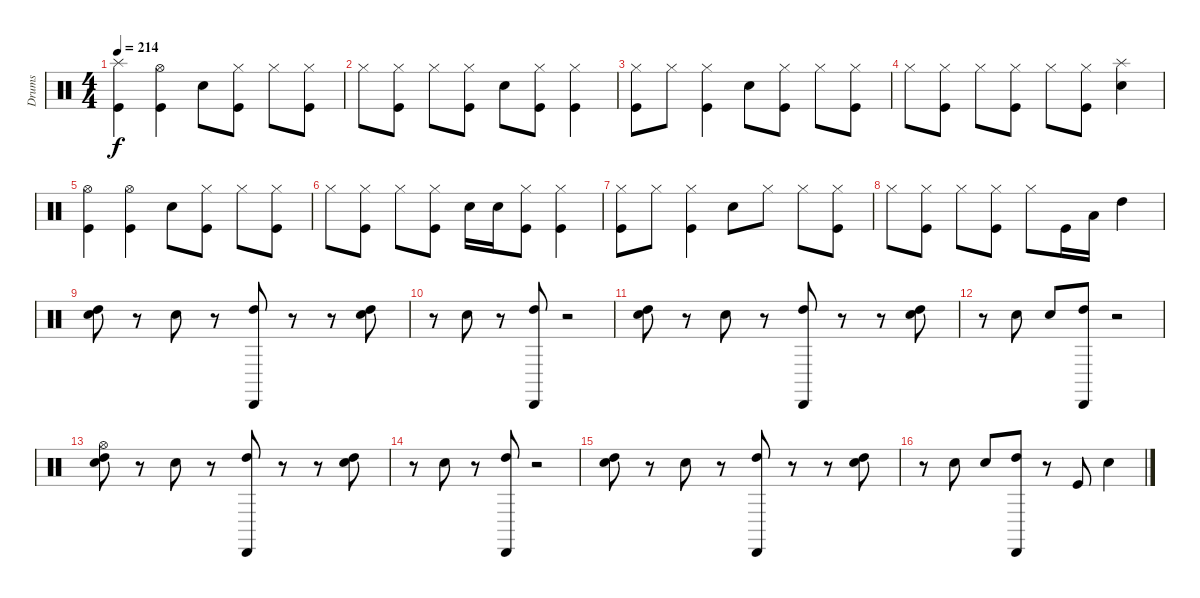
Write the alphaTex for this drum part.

\track ("Drums" "Drums") {instrument percussion}
\staff {score}
\articulation defaults
\ts (4 4)
\tempo 214
\clef neutral
\ks c
("Splash (hit)" "Kick (hit)").4{dy f} ("Hi-Hat (open)" "Kick (hit)").4 "Snare (hit) 2".8 ("Hi-Hat (closed)" "Kick (hit)").8 "Hi-Hat (closed)".8 ("Hi-Hat (closed)" "Kick (hit)").8 |
"Hi-Hat (closed)".8 ("Hi-Hat (closed)" "Kick (hit)").8 "Hi-Hat (closed)".8 ("Hi-Hat (closed)" "Kick (hit)").8 "Snare (hit) 2".8 ("Hi-Hat (closed)" "Kick (hit)").8 ("Hi-Hat (closed)" "Kick (hit)").4 |
("Hi-Hat (closed)" "Kick (hit)").8 "Hi-Hat (closed)".8 ("Hi-Hat (closed)" "Kick (hit)").4 "Snare (hit) 2".8 ("Hi-Hat (closed)" "Kick (hit)").8 "Hi-Hat (closed)".8 ("Hi-Hat (closed)" "Kick (hit)").8 |
"Hi-Hat (closed)".8 ("Hi-Hat (closed)" "Kick (hit)").8 "Hi-Hat (closed)".8 ("Hi-Hat (closed)" "Kick (hit)").8 "Hi-Hat (closed)".8 ("Hi-Hat (closed)" "Kick (hit)").8 ("Splash (hit)" "Snare (hit) 2").4 |
("Hi-Hat (open)" "Kick (hit)").4 ("Hi-Hat (open)" "Kick (hit)").4 "Snare (hit) 2".8 ("Hi-Hat (closed)" "Kick (hit)").8 "Hi-Hat (closed)".8 ("Hi-Hat (closed)" "Kick (hit)").8 |
"Hi-Hat (closed)".8 ("Hi-Hat (closed)" "Kick (hit)").8 "Hi-Hat (closed)".8 ("Hi-Hat (closed)" "Kick (hit)").8 "Snare (hit) 2".16 "Snare (hit) 2".16 ("Hi-Hat (closed)" "Kick (hit)").8 ("Hi-Hat (closed)" "Kick (hit)").4 |
("Hi-Hat (closed)" "Kick (hit)").8 "Hi-Hat (closed)".8 ("Hi-Hat (closed)" "Kick (hit)").4 "Snare (hit) 2".8 "Hi-Hat (closed)".8 "Hi-Hat (closed)".8 ("Hi-Hat (closed)" "Kick (hit)").8 |
"Hi-Hat (closed)".8 ("Hi-Hat (closed)" "Kick (hit)").8 "Hi-Hat (closed)".8 ("Hi-Hat (closed)" "Kick (hit)").8 "Hi-Hat (closed)".8 "Kick (hit)".16 "Low Tom (hit)".16 "High Tom (hit)".4 |
("Hand Clap (hit)" "High Tom (hit)").8 r.8 "Hand Clap (hit)".8 r.8 ("Cabasa (hit)" "High Tom (hit)").8 r.8 r.8 ("Hand Clap (hit)" "High Tom (hit)").8 |
r.8 "Hand Clap (hit)".8 r.8 ("Cabasa (hit)" "High Tom (hit)").8 r.2 |
("Hand Clap (hit)" "High Tom (hit)").8 r.8 "Hand Clap (hit)".8 r.8 ("Cabasa (hit)" "High Tom (hit)").8 r.8 r.8 ("Hand Clap (hit)" "High Tom (hit)").8 |
r.8 "Hand Clap (hit)".8 "Hand Clap (hit)".8 ("Cabasa (hit)" "High Tom (hit)").8 r.2 |
("Hand Clap (hit)" "Hi-Hat (open)" "High Tom (hit)").8 r.8 "Hand Clap (hit)".8 r.8 ("Cabasa (hit)" "High Tom (hit)").8 r.8 r.8 ("Hand Clap (hit)" "High Tom (hit)").8 |
r.8 "Hand Clap (hit)".8 r.8 ("Cabasa (hit)" "High Tom (hit)").8 r.2 |
("Hand Clap (hit)" "High Tom (hit)").8 r.8 "Hand Clap (hit)".8 r.8 ("Cabasa (hit)" "High Tom (hit)").8 r.8 r.8 ("Hand Clap (hit)" "High Tom (hit)").8 |
r.8 "Hand Clap (hit)".8 "Hand Clap (hit)".8 ("Cabasa (hit)" "High Tom (hit)").8 r.8 "Kick (hit)".8 "Snare (hit) 2".4
